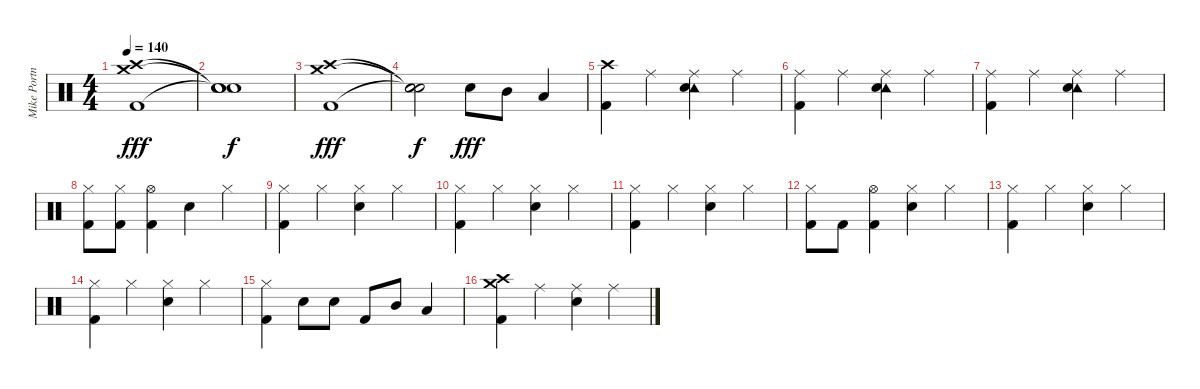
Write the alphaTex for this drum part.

\track ("Mike Portnoy" "Mike Portn") {instrument percussion}
\staff {score}
\articulation defaults
\ts (4 4)
\tempo 140
\clef neutral
\ks c
("Crash medium (hit)" "Crash high (hit)" "Kick (hit) 2").1{dy fff} |
("Snare (hit)"{t} "Snare (hit)"{t} "Snare (hit)"{t}).1{dy f} |
("Crash high (hit)" "Crash medium (hit)" "Kick (hit) 2").1{dy fff} |
("Snare (hit)"{t} "Snare (hit)"{t} "Snare (hit)"{t}).2{dy f} "Snare (hit) 2".8{dy fff} "Mid Tom (hit)".8 "Low Tom (hit)".4 |
("Crash high (hit)" "Kick (hit) 2").4 "Ride (middle)".4 ("Tambourine (hit)" "Ride (middle)" "Snare (hit) 2").4 "Ride (middle)".4 |
("Ride (middle)" "Kick (hit) 2").4 "Ride (middle)".4 ("Tambourine (hit)" "Ride (middle)" "Snare (hit) 2").4 "Ride (middle)".4 |
("Ride (middle)" "Kick (hit) 2").4 "Ride (middle)".4 ("Tambourine (hit)" "Ride (middle)" "Snare (hit) 2").4 "Ride (middle)".4 |
("Hi-Hat (closed)" "Kick (hit) 2").8 ("Hi-Hat (closed)" "Kick (hit) 2").8 ("Hi-Hat (open)" "Kick (hit) 2").4 "Snare (hit) 2".4 "Hi-Hat (closed)".4 |
("Hi-Hat (closed)" "Kick (hit) 2").4 "Hi-Hat (closed)".4 ("Hi-Hat (closed)" "Snare (hit) 2").4 "Hi-Hat (closed)".4 |
("Hi-Hat (closed)" "Kick (hit) 2").4 "Hi-Hat (closed)".4 ("Hi-Hat (closed)" "Snare (hit) 2").4 "Hi-Hat (closed)".4 |
("Hi-Hat (closed)" "Kick (hit) 2").4 "Hi-Hat (closed)".4 ("Hi-Hat (closed)" "Snare (hit) 2").4 "Hi-Hat (closed)".4 |
("Hi-Hat (closed)" "Kick (hit) 2").8 "Kick (hit) 2".8 ("Hi-Hat (open)" "Kick (hit) 2").4 ("Hi-Hat (closed)" "Snare (hit) 2").4 "Hi-Hat (closed)".4 |
("Hi-Hat (closed)" "Kick (hit) 2").4 "Hi-Hat (closed)".4 ("Hi-Hat (closed)" "Snare (hit) 2").4 "Hi-Hat (closed)".4 |
("Hi-Hat (closed)" "Kick (hit) 2").4 "Hi-Hat (closed)".4 ("Hi-Hat (closed)" "Snare (hit) 2").4 "Hi-Hat (closed)".4 |
("Hi-Hat (closed)" "Kick (hit) 2").4 "Snare (hit) 2".8 "Snare (hit) 2".8 "Kick (hit) 2".8 "Mid Tom (hit)".8 "Low Tom (hit)".4 |
("Crash high (hit)" "Crash medium (hit)" "Kick (hit) 2").4 "Ride (middle)".4 ("Ride (middle)" "Snare (hit) 2").4 "Ride (middle)".4
